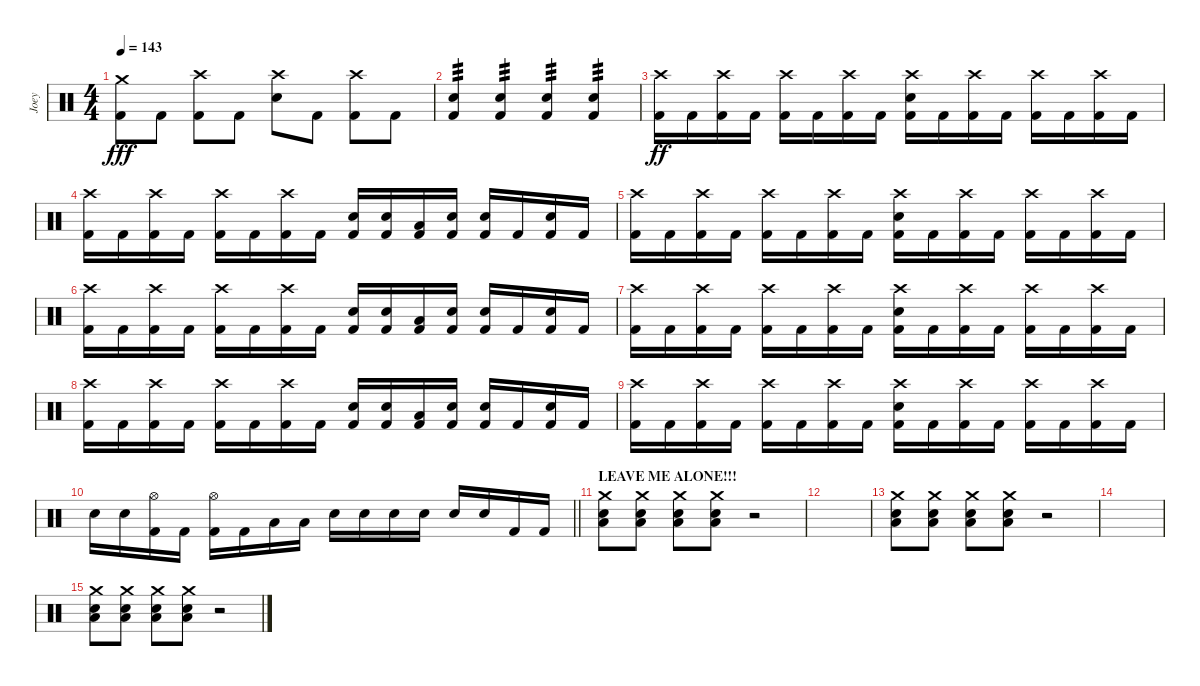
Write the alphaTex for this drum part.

\track ("Joey" "Joey") {instrument percussion}
\staff {score}
\articulation defaults
\ts (4 4)
\tempo 143
\clef neutral
\ks c
("Crash medium (hit)" "Kick (hit) 2").8{dy fff} "Kick (hit) 2".8 ("Crash high (hit)" "Kick (hit) 2").8 "Kick (hit) 2".8 ("Crash high (hit)" "Electric Snare (hit)").8 "Kick (hit) 2".8 ("Crash high (hit)" "Kick (hit) 2").8 "Kick (hit) 2".8 |
("Electric Snare (hit)" "Kick (hit) 2").4{tp 3} ("Electric Snare (hit)" "Kick (hit) 2").4{tp 3} ("Electric Snare (hit)" "Kick (hit) 2").4{tp 3} ("Electric Snare (hit)" "Kick (hit) 2").4{tp 3} |
("Crash high (hit)" "Kick (hit) 2").16{dy ff} "Kick (hit) 2".16 ("Crash high (hit)" "Kick (hit) 2").16 "Kick (hit) 2".16 ("Crash high (hit)" "Kick (hit) 2").16 "Kick (hit) 2".16 ("Crash high (hit)" "Kick (hit) 2").16 "Kick (hit) 2".16 ("Crash high (hit)" "Electric Snare (hit)" "Kick (hit) 2").16 "Kick (hit) 2".16 ("Crash high (hit)" "Kick (hit) 2").16 "Kick (hit) 2".16 ("Crash high (hit)" "Kick (hit) 2").16 "Kick (hit) 2".16 ("Crash high (hit)" "Kick (hit) 2").16 "Kick (hit) 2".16 |
("Crash high (hit)" "Kick (hit) 2").16 "Kick (hit) 2".16 ("Crash high (hit)" "Kick (hit) 2").16 "Kick (hit) 2".16 ("Crash high (hit)" "Kick (hit) 2").16 "Kick (hit) 2".16 ("Crash high (hit)" "Kick (hit) 2").16 "Kick (hit) 2".16 ("Electric Snare (hit)" "Kick (hit) 2").16 ("Electric Snare (hit)" "Kick (hit) 2").16 ("Low Tom (hit)" "Kick (hit) 2").16 ("Electric Snare (hit)" "Kick (hit) 2").16 ("Electric Snare (hit)" "Kick (hit) 2").16 "Kick (hit) 2".16 ("Electric Snare (hit)" "Kick (hit) 2").16 "Kick (hit) 2".16 |
("Crash high (hit)" "Kick (hit) 2").16 "Kick (hit) 2".16 ("Crash high (hit)" "Kick (hit) 2").16 "Kick (hit) 2".16 ("Crash high (hit)" "Kick (hit) 2").16 "Kick (hit) 2".16 ("Crash high (hit)" "Kick (hit) 2").16 "Kick (hit) 2".16 ("Crash high (hit)" "Electric Snare (hit)" "Kick (hit) 2").16 "Kick (hit) 2".16 ("Crash high (hit)" "Kick (hit) 2").16 "Kick (hit) 2".16 ("Crash high (hit)" "Kick (hit) 2").16 "Kick (hit) 2".16 ("Crash high (hit)" "Kick (hit) 2").16 "Kick (hit) 2".16 |
("Crash high (hit)" "Kick (hit) 2").16 "Kick (hit) 2".16 ("Crash high (hit)" "Kick (hit) 2").16 "Kick (hit) 2".16 ("Crash high (hit)" "Kick (hit) 2").16 "Kick (hit) 2".16 ("Crash high (hit)" "Kick (hit) 2").16 "Kick (hit) 2".16 ("Electric Snare (hit)" "Kick (hit) 2").16 ("Electric Snare (hit)" "Kick (hit) 2").16 ("Low Tom (hit)" "Kick (hit) 2").16 ("Electric Snare (hit)" "Kick (hit) 2").16 ("Electric Snare (hit)" "Kick (hit) 2").16 "Kick (hit) 2".16 ("Electric Snare (hit)" "Kick (hit) 2").16 "Kick (hit) 2".16 |
("Crash high (hit)" "Kick (hit) 2").16 "Kick (hit) 2".16 ("Crash high (hit)" "Kick (hit) 2").16 "Kick (hit) 2".16 ("Crash high (hit)" "Kick (hit) 2").16 "Kick (hit) 2".16 ("Crash high (hit)" "Kick (hit) 2").16 "Kick (hit) 2".16 ("Crash high (hit)" "Electric Snare (hit)" "Kick (hit) 2").16 "Kick (hit) 2".16 ("Crash high (hit)" "Kick (hit) 2").16 "Kick (hit) 2".16 ("Crash high (hit)" "Kick (hit) 2").16 "Kick (hit) 2".16 ("Crash high (hit)" "Kick (hit) 2").16 "Kick (hit) 2".16 |
("Crash high (hit)" "Kick (hit) 2").16 "Kick (hit) 2".16 ("Crash high (hit)" "Kick (hit) 2").16 "Kick (hit) 2".16 ("Crash high (hit)" "Kick (hit) 2").16 "Kick (hit) 2".16 ("Crash high (hit)" "Kick (hit) 2").16 "Kick (hit) 2".16 ("Electric Snare (hit)" "Kick (hit) 2").16 ("Electric Snare (hit)" "Kick (hit) 2").16 ("Low Tom (hit)" "Kick (hit) 2").16 ("Electric Snare (hit)" "Kick (hit) 2").16 ("Electric Snare (hit)" "Kick (hit) 2").16 "Kick (hit) 2".16 ("Electric Snare (hit)" "Kick (hit) 2").16 "Kick (hit) 2".16 |
("Crash high (hit)" "Kick (hit) 2").16 "Kick (hit) 2".16 ("Crash high (hit)" "Kick (hit) 2").16 "Kick (hit) 2".16 ("Crash high (hit)" "Kick (hit) 2").16 "Kick (hit) 2".16 ("Crash high (hit)" "Kick (hit) 2").16 "Kick (hit) 2".16 ("Crash high (hit)" "Electric Snare (hit)" "Kick (hit) 2").16 "Kick (hit) 2".16 ("Crash high (hit)" "Kick (hit) 2").16 "Kick (hit) 2".16 ("Crash high (hit)" "Kick (hit) 2").16 "Kick (hit) 2".16 ("Crash high (hit)" "Kick (hit) 2").16 "Kick (hit) 2".16 |
\barLineRight lightlight "Electric Snare (hit)".16 "Electric Snare (hit)".16
("Hi-Hat (open)" "Kick (hit) 2").16 "Kick (hit) 2".16 ("Hi-Hat (open)" "Kick (hit) 2").16 "Kick (hit) 2".16 "Low Tom (hit)".16 "Low Tom (hit)".16 "Electric Snare (hit)".16 "Electric Snare (hit)".16 "Electric Snare (hit)".16 "Electric Snare (hit)".16 "Electric Snare (hit)".16 "Electric Snare (hit)".16 "Kick (hit) 2".16 "Kick (hit) 2".16 |
\section ("" "LEAVE ME ALONE!!!")
("Crash medium (hit)" "Electric Snare (hit)" "Low Tom (hit)").8 ("Crash medium (hit)" "Electric Snare (hit)" "Low Tom (hit)").8 ("Crash medium (hit)" "Electric Snare (hit)" "Low Tom (hit)").8 ("Crash medium (hit)" "Electric Snare (hit)" "Low Tom (hit)").8 r.2 |
|
("Crash medium (hit)" "Electric Snare (hit)" "Low Tom (hit)").8 ("Crash medium (hit)" "Electric Snare (hit)" "Low Tom (hit)").8 ("Crash medium (hit)" "Electric Snare (hit)" "Low Tom (hit)").8 ("Crash medium (hit)" "Electric Snare (hit)" "Low Tom (hit)").8 r.2 |
|
("Crash medium (hit)" "Electric Snare (hit)" "Low Tom (hit)").8 ("Crash medium (hit)" "Electric Snare (hit)" "Low Tom (hit)").8 ("Crash medium (hit)" "Electric Snare (hit)" "Low Tom (hit)").8 ("Crash medium (hit)" "Electric Snare (hit)" "Low Tom (hit)").8 r.2
